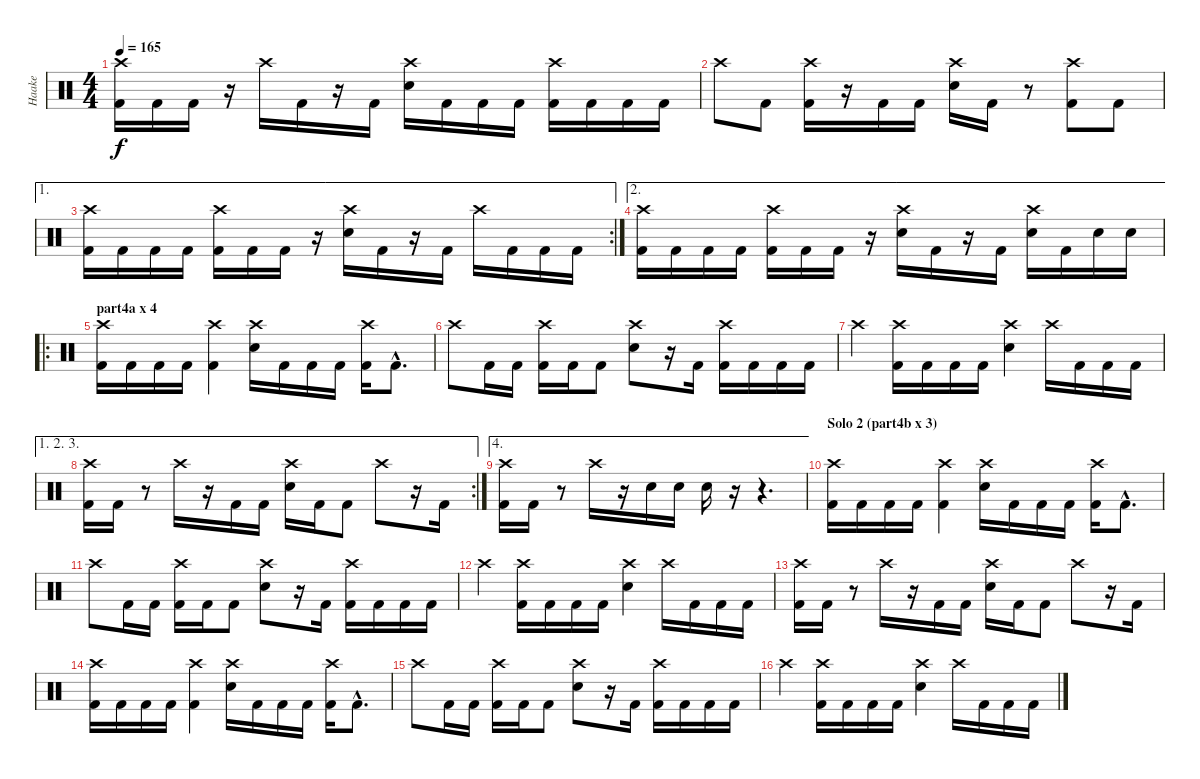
\track ("Haake" "Haake") {instrument percussion}
\staff {score}
\articulation defaults
\ts (4 4)
\tempo 165
\clef neutral
\ks c
("Crash high (hit)" "Kick (hit) 2").16{dy f} "Kick (hit) 2".16 "Kick (hit) 2".16 r.16 "Crash high (hit)".16 "Kick (hit) 2".16 r.16 "Kick (hit) 2".16 ("Crash high (hit)" "Electric Snare (hit)").16 "Kick (hit) 2".16 "Kick (hit) 2".16 "Kick (hit) 2".16 ("Crash high (hit)" "Kick (hit) 2").16 "Kick (hit) 2".16 "Kick (hit) 2".16 "Kick (hit) 2".16 |
"Crash high (hit)".8 "Kick (hit) 2".8 ("Crash high (hit)" "Kick (hit) 2").16 r.16 "Kick (hit) 2".16 "Kick (hit) 2".16 ("Crash high (hit)" "Electric Snare (hit)").16 "Kick (hit) 2".16 r.8 ("Crash high (hit)" "Kick (hit) 2").8 "Kick (hit) 2".8 |
\ae 1
\rc 2
("Crash high (hit)" "Kick (hit) 2").16 "Kick (hit) 2".16 "Kick (hit) 2".16 "Kick (hit) 2".16 ("Crash high (hit)" "Kick (hit) 2").16 "Kick (hit) 2".16 "Kick (hit) 2".16 r.16 ("Crash high (hit)" "Electric Snare (hit)").16 "Kick (hit) 2".16 r.16 "Kick (hit) 2".16 "Crash high (hit)".16 "Kick (hit) 2".16 "Kick (hit) 2".16 "Kick (hit) 2".16 |
\ae 2
("Crash high (hit)" "Kick (hit) 2").16 "Kick (hit) 2".16 "Kick (hit) 2".16 "Kick (hit) 2".16 ("Crash high (hit)" "Kick (hit) 2").16 "Kick (hit) 2".16 "Kick (hit) 2".16 r.16 ("Crash high (hit)" "Electric Snare (hit)").16 "Kick (hit) 2".16 r.16 "Kick (hit) 2".16 ("Crash high (hit)" "Electric Snare (hit)").16 "Kick (hit) 2".16 "Electric Snare (hit)".16 "Electric Snare (hit)".16 |
\ro
\section ("" "part4a x 4")
("Crash high (hit)" "Kick (hit) 2").16 "Kick (hit) 2".16 "Kick (hit) 2".16 "Kick (hit) 2".16 ("Crash high (hit)" "Kick (hit) 2").4 ("Crash high (hit)" "Electric Snare (hit)").16 "Kick (hit) 2".16 "Kick (hit) 2".16 "Kick (hit) 2".16 ("Crash high (hit)" "Kick (hit) 2").16 "Kick (hit) 2"{hac}.8{d} |
"Crash high (hit)".8 "Kick (hit) 2".16 "Kick (hit) 2".16 ("Crash high (hit)" "Kick (hit) 2").16 "Kick (hit) 2".16 "Kick (hit) 2".8 ("Crash high (hit)" "Electric Snare (hit)").8 r.16 "Kick (hit) 2".16 ("Crash high (hit)" "Kick (hit) 2").16 "Kick (hit) 2".16 "Kick (hit) 2".16 "Kick (hit) 2".16 |
"Crash high (hit)".4 ("Crash high (hit)" "Kick (hit) 2").16 "Kick (hit) 2".16 "Kick (hit) 2".16 "Kick (hit) 2".16 ("Crash high (hit)" "Electric Snare (hit)").4 "Crash high (hit)".16 "Kick (hit) 2".16 "Kick (hit) 2".16 "Kick (hit) 2".16 |
\ae (1 2 3)
\rc 2
("Crash high (hit)" "Kick (hit) 2").16 "Kick (hit) 2".16 r.8 "Crash high (hit)".16 r.16 "Kick (hit) 2".16 "Kick (hit) 2".16 ("Crash high (hit)" "Electric Snare (hit)").16 "Kick (hit) 2".16 "Kick (hit) 2".8 "Crash high (hit)".8 r.16 "Kick (hit) 2".16 |
\ae 4
("Crash high (hit)" "Kick (hit) 2").16 "Kick (hit) 2".16 r.8 "Crash high (hit)".16 r.16 "Electric Snare (hit)".16 "Electric Snare (hit)".16 "Electric Snare (hit)".16 r.16 r.4{d} |
\section ("" "Solo 2 (part4b x 3)")
("Crash high (hit)" "Kick (hit) 2").16 "Kick (hit) 2".16 "Kick (hit) 2".16 "Kick (hit) 2".16 ("Crash high (hit)" "Kick (hit) 2").4 ("Crash high (hit)" "Electric Snare (hit)").16 "Kick (hit) 2".16 "Kick (hit) 2".16 "Kick (hit) 2".16 ("Crash high (hit)" "Kick (hit) 2").16 "Kick (hit) 2"{hac}.8{d} |
"Crash high (hit)".8 "Kick (hit) 2".16 "Kick (hit) 2".16 ("Crash high (hit)" "Kick (hit) 2").16 "Kick (hit) 2".16 "Kick (hit) 2".8 ("Crash high (hit)" "Electric Snare (hit)").8 r.16 "Kick (hit) 2".16 ("Crash high (hit)" "Kick (hit) 2").16 "Kick (hit) 2".16 "Kick (hit) 2".16 "Kick (hit) 2".16 |
"Crash high (hit)".4 ("Crash high (hit)" "Kick (hit) 2").16 "Kick (hit) 2".16 "Kick (hit) 2".16 "Kick (hit) 2".16 ("Crash high (hit)" "Electric Snare (hit)").4 "Crash high (hit)".16 "Kick (hit) 2".16 "Kick (hit) 2".16 "Kick (hit) 2".16 |
("Crash high (hit)" "Kick (hit) 2").16 "Kick (hit) 2".16 r.8 "Crash high (hit)".16 r.16 "Kick (hit) 2".16 "Kick (hit) 2".16 ("Crash high (hit)" "Electric Snare (hit)").16 "Kick (hit) 2".16 "Kick (hit) 2".8 "Crash high (hit)".8 r.16 "Kick (hit) 2".16 |
("Crash high (hit)" "Kick (hit) 2").16 "Kick (hit) 2".16 "Kick (hit) 2".16 "Kick (hit) 2".16 ("Crash high (hit)" "Kick (hit) 2").4 ("Crash high (hit)" "Electric Snare (hit)").16 "Kick (hit) 2".16 "Kick (hit) 2".16 "Kick (hit) 2".16 ("Crash high (hit)" "Kick (hit) 2").16 "Kick (hit) 2"{hac}.8{d} |
"Crash high (hit)".8 "Kick (hit) 2".16 "Kick (hit) 2".16 ("Crash high (hit)" "Kick (hit) 2").16 "Kick (hit) 2".16 "Kick (hit) 2".8 ("Crash high (hit)" "Electric Snare (hit)").8 r.16 "Kick (hit) 2".16 ("Crash high (hit)" "Kick (hit) 2").16 "Kick (hit) 2".16 "Kick (hit) 2".16 "Kick (hit) 2".16 |
"Crash high (hit)".4 ("Crash high (hit)" "Kick (hit) 2").16 "Kick (hit) 2".16 "Kick (hit) 2".16 "Kick (hit) 2".16 ("Crash high (hit)" "Electric Snare (hit)").4 "Crash high (hit)".16 "Kick (hit) 2".16 "Kick (hit) 2".16 "Kick (hit) 2".16
